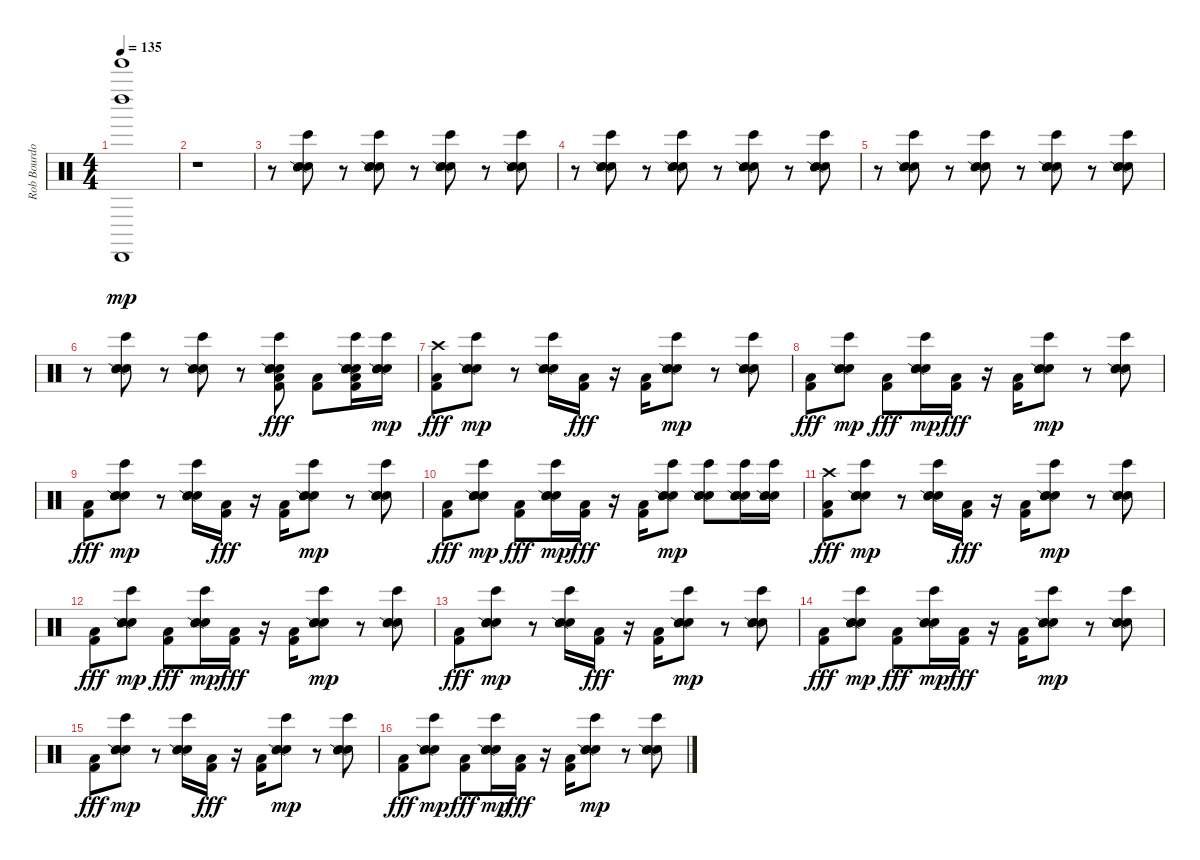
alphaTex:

\track ("Rob Bourdon - Beats & Drums" "Rob Bourdo") {instrument percussion}
\staff {score}
\articulation defaults
\ts (4 4)
\tempo 135
\clef neutral
\ks c
("Tinkle Bell (hit)" "Cabasa (hit)" "Left Maraca (hit)").1{dy mp} |
r.1 |
r.8 ("Bongo High (hit)" "Electric Snare (hit)" "Snare (side stick) 2" "Hand Clap (hit)").8 r.8 ("Bongo High (hit)" "Electric Snare (hit)" "Snare (side stick) 2" "Hand Clap (hit)").8 r.8 ("Bongo High (hit)" "Electric Snare (hit)" "Snare (side stick) 2" "Hand Clap (hit)").8 r.8 ("Bongo High (hit)" "Electric Snare (hit)" "Snare (side stick) 2" "Hand Clap (hit)").8 |
r.8 ("Bongo High (hit)" "Electric Snare (hit)" "Snare (side stick) 2" "Hand Clap (hit)").8 r.8 ("Bongo High (hit)" "Electric Snare (hit)" "Snare (side stick) 2" "Hand Clap (hit)").8 r.8 ("Bongo High (hit)" "Electric Snare (hit)" "Snare (side stick) 2" "Hand Clap (hit)").8 r.8 ("Bongo High (hit)" "Electric Snare (hit)" "Snare (side stick) 2" "Hand Clap (hit)").8 |
r.8 ("Bongo High (hit)" "Electric Snare (hit)" "Snare (side stick) 2" "Hand Clap (hit)").8 r.8 ("Bongo High (hit)" "Electric Snare (hit)" "Snare (side stick) 2" "Hand Clap (hit)").8 r.8 ("Bongo High (hit)" "Electric Snare (hit)" "Snare (side stick) 2" "Hand Clap (hit)").8 r.8 ("Bongo High (hit)" "Electric Snare (hit)" "Snare (side stick) 2" "Hand Clap (hit)").8 |
r.8 ("Bongo High (hit)" "Electric Snare (hit)" "Snare (side stick) 2" "Hand Clap (hit)").8 r.8 ("Bongo High (hit)" "Electric Snare (hit)" "Snare (side stick) 2" "Hand Clap (hit)").8 r.8 ("Low Floor Tom (hit)" "Bongo High (hit)" "Electric Snare (hit)" "Snare (side stick) 2" "Hand Clap (hit)" "Kick (hit) 2").8{dy fff} ("Low Floor Tom (hit)" "Kick (hit) 2").8 ("Low Floor Tom (hit)" "Bongo High (hit)" "Electric Snare (hit)" "Snare (side stick) 2" "Hand Clap (hit)" "Kick (hit) 2").16 ("Bongo High (hit)" "Electric Snare (hit)" "Snare (side stick) 2" "Hand Clap (hit)").16{dy mp} |
("Low Floor Tom (hit)" "Crash high (hit)" "Kick (hit) 2").8{dy fff} ("Bongo High (hit)" "Electric Snare (hit)" "Snare (side stick) 2" "Hand Clap (hit)").8{dy mp} r.8 ("Bongo High (hit)" "Electric Snare (hit)" "Snare (side stick) 2" "Hand Clap (hit)").16 ("Low Floor Tom (hit)" "Kick (hit) 2").16{dy fff} r.16 ("Low Floor Tom (hit)" "Kick (hit) 2").16 ("Bongo High (hit)" "Electric Snare (hit)" "Snare (side stick) 2" "Hand Clap (hit)").8{dy mp} r.8 ("Bongo High (hit)" "Electric Snare (hit)" "Snare (side stick) 2" "Hand Clap (hit)").8 |
("Low Floor Tom (hit)" "Kick (hit) 2").8{dy fff} ("Bongo High (hit)" "Electric Snare (hit)" "Snare (side stick) 2" "Hand Clap (hit)").8{dy mp} ("Low Floor Tom (hit)" "Kick (hit) 2").8{dy fff} ("Bongo High (hit)" "Electric Snare (hit)" "Snare (side stick) 2" "Hand Clap (hit)").16{dy mp} ("Low Floor Tom (hit)" "Kick (hit) 2").16{dy fff} r.16 ("Low Floor Tom (hit)" "Kick (hit) 2").16 ("Bongo High (hit)" "Electric Snare (hit)" "Snare (side stick) 2" "Hand Clap (hit)").8{dy mp} r.8 ("Bongo High (hit)" "Electric Snare (hit)" "Snare (side stick) 2" "Hand Clap (hit)").8 |
("Low Floor Tom (hit)" "Kick (hit) 2").8{dy fff} ("Bongo High (hit)" "Electric Snare (hit)" "Snare (side stick) 2" "Hand Clap (hit)").8{dy mp} r.8 ("Bongo High (hit)" "Electric Snare (hit)" "Snare (side stick) 2" "Hand Clap (hit)").16 ("Low Floor Tom (hit)" "Kick (hit) 2").16{dy fff} r.16 ("Low Floor Tom (hit)" "Kick (hit) 2").16 ("Bongo High (hit)" "Electric Snare (hit)" "Snare (side stick) 2" "Hand Clap (hit)").8{dy mp} r.8 ("Bongo High (hit)" "Electric Snare (hit)" "Snare (side stick) 2" "Hand Clap (hit)").8 |
("Low Floor Tom (hit)" "Kick (hit) 2").8{dy fff} ("Bongo High (hit)" "Electric Snare (hit)" "Snare (side stick) 2" "Hand Clap (hit)").8{dy mp} ("Low Floor Tom (hit)" "Kick (hit) 2").8{dy fff} ("Bongo High (hit)" "Electric Snare (hit)" "Snare (side stick) 2" "Hand Clap (hit)").16{dy mp} ("Low Floor Tom (hit)" "Kick (hit) 2").16{dy fff} r.16 ("Low Floor Tom (hit)" "Kick (hit) 2").16 ("Bongo High (hit)" "Electric Snare (hit)" "Snare (side stick) 2" "Hand Clap (hit)").8{dy mp} ("Bongo High (hit)" "Electric Snare (hit)" "Snare (side stick) 2" "Hand Clap (hit)").8 ("Bongo High (hit)" "Electric Snare (hit)" "Snare (side stick) 2" "Hand Clap (hit)").16 ("Bongo High (hit)" "Electric Snare (hit)" "Snare (side stick) 2" "Hand Clap (hit)").16 |
("Low Floor Tom (hit)" "Crash high (hit)" "Kick (hit) 2").8{dy fff} ("Bongo High (hit)" "Electric Snare (hit)" "Snare (side stick) 2" "Hand Clap (hit)").8{dy mp} r.8 ("Bongo High (hit)" "Electric Snare (hit)" "Snare (side stick) 2" "Hand Clap (hit)").16 ("Low Floor Tom (hit)" "Kick (hit) 2").16{dy fff} r.16 ("Low Floor Tom (hit)" "Kick (hit) 2").16 ("Bongo High (hit)" "Electric Snare (hit)" "Snare (side stick) 2" "Hand Clap (hit)").8{dy mp} r.8 ("Bongo High (hit)" "Electric Snare (hit)" "Snare (side stick) 2" "Hand Clap (hit)").8 |
("Low Floor Tom (hit)" "Kick (hit) 2").8{dy fff} ("Bongo High (hit)" "Electric Snare (hit)" "Snare (side stick) 2" "Hand Clap (hit)").8{dy mp} ("Low Floor Tom (hit)" "Kick (hit) 2").8{dy fff} ("Bongo High (hit)" "Electric Snare (hit)" "Snare (side stick) 2" "Hand Clap (hit)").16{dy mp} ("Low Floor Tom (hit)" "Kick (hit) 2").16{dy fff} r.16 ("Low Floor Tom (hit)" "Kick (hit) 2").16 ("Bongo High (hit)" "Electric Snare (hit)" "Snare (side stick) 2" "Hand Clap (hit)").8{dy mp} r.8 ("Bongo High (hit)" "Electric Snare (hit)" "Snare (side stick) 2" "Hand Clap (hit)").8 |
("Low Floor Tom (hit)" "Kick (hit) 2").8{dy fff} ("Bongo High (hit)" "Electric Snare (hit)" "Snare (side stick) 2" "Hand Clap (hit)").8{dy mp} r.8 ("Bongo High (hit)" "Electric Snare (hit)" "Snare (side stick) 2" "Hand Clap (hit)").16 ("Low Floor Tom (hit)" "Kick (hit) 2").16{dy fff} r.16 ("Low Floor Tom (hit)" "Kick (hit) 2").16 ("Bongo High (hit)" "Electric Snare (hit)" "Snare (side stick) 2" "Hand Clap (hit)").8{dy mp} r.8 ("Bongo High (hit)" "Electric Snare (hit)" "Snare (side stick) 2" "Hand Clap (hit)").8 |
("Low Floor Tom (hit)" "Kick (hit) 2").8{dy fff} ("Bongo High (hit)" "Electric Snare (hit)" "Snare (side stick) 2" "Hand Clap (hit)").8{dy mp} ("Low Floor Tom (hit)" "Kick (hit) 2").8{dy fff} ("Bongo High (hit)" "Electric Snare (hit)" "Snare (side stick) 2" "Hand Clap (hit)").16{dy mp} ("Low Floor Tom (hit)" "Kick (hit) 2").16{dy fff} r.16 ("Low Floor Tom (hit)" "Kick (hit) 2").16 ("Bongo High (hit)" "Electric Snare (hit)" "Snare (side stick) 2" "Hand Clap (hit)").8{dy mp} r.8 ("Bongo High (hit)" "Electric Snare (hit)" "Snare (side stick) 2" "Hand Clap (hit)").8 |
("Low Floor Tom (hit)" "Kick (hit) 2").8{dy fff} ("Bongo High (hit)" "Electric Snare (hit)" "Snare (side stick) 2" "Hand Clap (hit)").8{dy mp} r.8 ("Bongo High (hit)" "Electric Snare (hit)" "Snare (side stick) 2" "Hand Clap (hit)").16 ("Low Floor Tom (hit)" "Kick (hit) 2").16{dy fff} r.16 ("Low Floor Tom (hit)" "Kick (hit) 2").16 ("Bongo High (hit)" "Electric Snare (hit)" "Snare (side stick) 2" "Hand Clap (hit)").8{dy mp} r.8 ("Bongo High (hit)" "Electric Snare (hit)" "Snare (side stick) 2" "Hand Clap (hit)").8 |
("Low Floor Tom (hit)" "Kick (hit) 2").8{dy fff} ("Bongo High (hit)" "Electric Snare (hit)" "Snare (side stick) 2" "Hand Clap (hit)").8{dy mp} ("Low Floor Tom (hit)" "Kick (hit) 2").8{dy fff} ("Bongo High (hit)" "Electric Snare (hit)" "Snare (side stick) 2" "Hand Clap (hit)").16{dy mp} ("Low Floor Tom (hit)" "Kick (hit) 2").16{dy fff} r.16 ("Low Floor Tom (hit)" "Kick (hit) 2").16 ("Bongo High (hit)" "Electric Snare (hit)" "Snare (side stick) 2" "Hand Clap (hit)").8{dy mp} r.8 ("Bongo High (hit)" "Electric Snare (hit)" "Snare (side stick) 2" "Hand Clap (hit)").8
